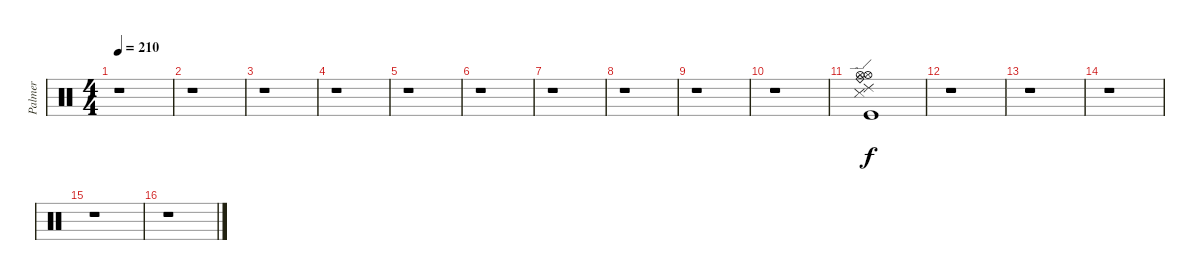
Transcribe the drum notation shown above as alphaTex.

\track ("Palmer" "Palmer") {instrument percussion}
\staff {score}
\articulation defaults
\ts (4 4)
\tempo 210
\clef neutral
\ks c
r.1{dy f} |
r.1 |
r.1 |
r.1 |
r.1 |
r.1 |
r.1 |
r.1 |
r.1 |
r.1 |
("Ride (bell)" "Hi-Hat (open)" "Kick (hit)" "Snare (side stick) 3" "Hi-Hat (open)" "Ride (edge) 2").1{balance 8} |
r.1 |
r.1 |
r.1 |
r.1 |
r.1
